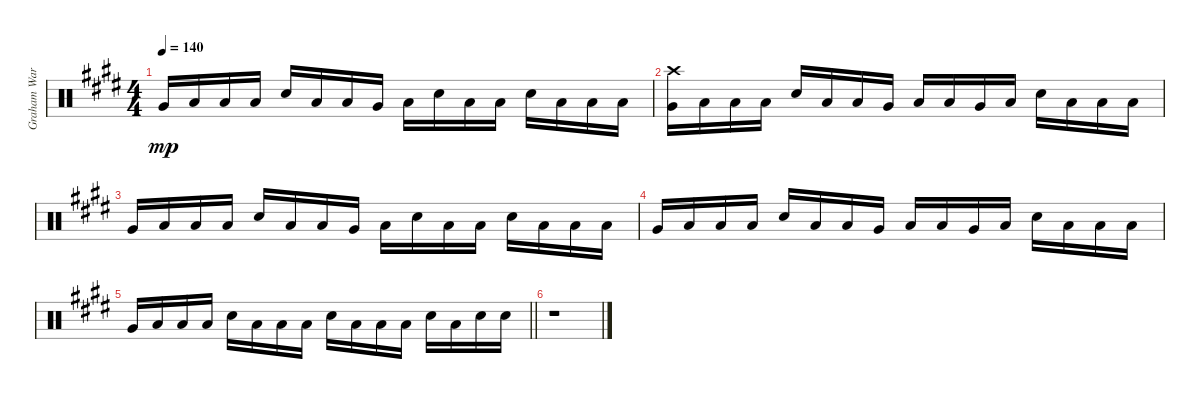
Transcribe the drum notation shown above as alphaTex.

\track ("Graham Ward (Drums)" "Graham War") {instrument percussion}
\staff {score}
\articulation defaults
\ts (4 4)
\tempo 140
\clef neutral
\ks e "Very Low Tom (hit)".16{dy mp} "Low Floor Tom (hit)".16 "Low Floor Tom (hit)".16 "Low Floor Tom (hit)".16 "Snare (hit) 2".16 "Low Floor Tom (hit)".16 "Low Floor Tom (hit)".16 "Very Low Tom (hit)".16 "Low Floor Tom (hit)".16 "Snare (hit) 2".16 "Low Floor Tom (hit)".16 "Low Floor Tom (hit)".16 "Snare (hit) 2".16 "Low Floor Tom (hit)".16 "Low Floor Tom (hit)".16 "Low Floor Tom (hit)".16
|
("Crash high (hit)" "Very Low Tom (hit)").16 "Low Floor Tom (hit)".16 "Low Floor Tom (hit)".16 "Low Floor Tom (hit)".16 "Snare (hit) 2".16 "Low Floor Tom (hit)".16 "Low Floor Tom (hit)".16 "Very Low Tom (hit)".16 "Low Floor Tom (hit)".16 "Low Floor Tom (hit)".16 "Very Low Tom (hit)".16 "Low Floor Tom (hit)".16 "Snare (hit) 2".16 "Low Floor Tom (hit)".16 "Low Floor Tom (hit)".16 "Low Floor Tom (hit)".16 |
"Very Low Tom (hit)".16 "Low Floor Tom (hit)".16 "Low Floor Tom (hit)".16 "Low Floor Tom (hit)".16 "Snare (hit) 2".16 "Low Floor Tom (hit)".16 "Low Floor Tom (hit)".16 "Very Low Tom (hit)".16 "Low Floor Tom (hit)".16 "Snare (hit) 2".16 "Low Floor Tom (hit)".16 "Low Floor Tom (hit)".16 "Snare (hit) 2".16 "Low Floor Tom (hit)".16 "Low Floor Tom (hit)".16 "Low Floor Tom (hit)".16 |
"Very Low Tom (hit)".16 "Low Floor Tom (hit)".16 "Low Floor Tom (hit)".16 "Low Floor Tom (hit)".16 "Snare (hit) 2".16 "Low Floor Tom (hit)".16 "Low Floor Tom (hit)".16 "Very Low Tom (hit)".16 "Low Floor Tom (hit)".16 "Low Floor Tom (hit)".16 "Very Low Tom (hit)".16 "Low Floor Tom (hit)".16 "Snare (hit) 2".16 "Low Floor Tom (hit)".16 "Low Floor Tom (hit)".16 "Low Floor Tom (hit)".16 |
\barLineRight lightlight "Very Low Tom (hit)".16 "Low Floor Tom (hit)".16 "Low Floor Tom (hit)".16 "Low Floor Tom (hit)".16 "Snare (hit) 2".16 "Low Floor Tom (hit)".16 "Low Floor Tom (hit)".16 "Low Floor Tom (hit)".16 "Snare (hit) 2".16 "Low Floor Tom (hit)".16 "Low Floor Tom (hit)".16 "Low Floor Tom (hit)".16 "Snare (hit) 2".16 "Low Floor Tom (hit)".16 "Snare (hit) 2".16 "Snare (hit) 2".16
|
r.1
